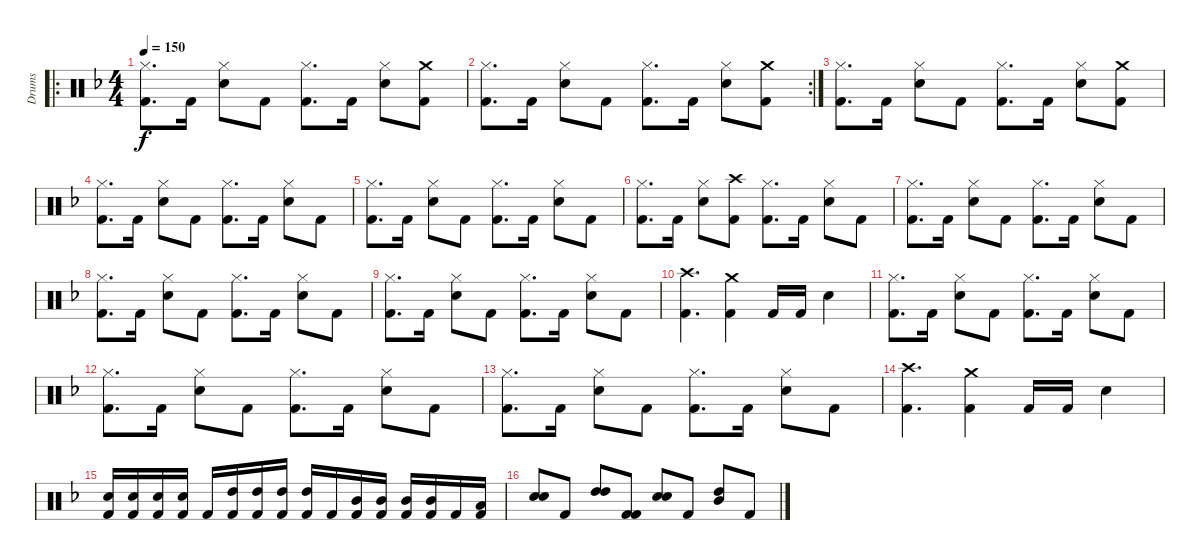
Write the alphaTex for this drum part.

\track ("Drums" "Drums") {instrument percussion}
\staff {score}
\articulation defaults
\ro
\ts (4 4)
\tempo 150
\clef neutral
\ks f
("Kick (hit) 2" "Hi-Hat (closed)").8{d dy f} "Kick (hit) 2".16 ("Snare (hit) 2" "Hi-Hat (closed)").8 "Kick (hit) 2".8 ("Kick (hit) 2" "Hi-Hat (closed)").8{d} "Kick (hit) 2".16 ("Snare (hit) 2" "Hi-Hat (closed)").8 ("Kick (hit) 2" "Crash medium (hit)").8 |
\rc 2
("Kick (hit) 2" "Hi-Hat (closed)").8{d} "Kick (hit) 2".16 ("Snare (hit) 2" "Hi-Hat (closed)").8 "Kick (hit) 2".8 ("Kick (hit) 2" "Hi-Hat (closed)").8{d} "Kick (hit) 2".16 ("Snare (hit) 2" "Hi-Hat (closed)").8 ("Kick (hit) 2" "Crash medium (hit)").8 |
("Kick (hit) 2" "Hi-Hat (closed)").8{d} "Kick (hit) 2".16 ("Snare (hit) 2" "Hi-Hat (closed)").8 "Kick (hit) 2".8 ("Kick (hit) 2" "Hi-Hat (closed)").8{d} "Kick (hit) 2".16 ("Snare (hit) 2" "Hi-Hat (closed)").8 ("Kick (hit) 2" "Crash medium (hit)").8 |
("Kick (hit) 2" "Hi-Hat (closed)").8{d} "Kick (hit) 2".16 ("Snare (hit) 2" "Hi-Hat (closed)").8 "Kick (hit) 2".8 ("Kick (hit) 2" "Hi-Hat (closed)").8{d} "Kick (hit) 2".16 ("Snare (hit) 2" "Hi-Hat (closed)").8 "Kick (hit) 2".8 |
("Kick (hit) 2" "Hi-Hat (closed)").8{d} "Kick (hit) 2".16 ("Snare (hit) 2" "Hi-Hat (closed)").8 "Kick (hit) 2".8 ("Kick (hit) 2" "Hi-Hat (closed)").8{d} "Kick (hit) 2".16 ("Snare (hit) 2" "Hi-Hat (closed)").8 "Kick (hit) 2".8 |
("Kick (hit) 2" "Hi-Hat (closed)").8{d} "Kick (hit) 2".16 ("Snare (hit) 2" "Hi-Hat (closed)").8 ("Kick (hit) 2" "Crash high (hit)").8 ("Kick (hit) 2" "Hi-Hat (closed)").8{d} "Kick (hit) 2".16 ("Snare (hit) 2" "Hi-Hat (closed)").8 "Kick (hit) 2".8 |
("Kick (hit) 2" "Hi-Hat (closed)").8{d} "Kick (hit) 2".16 ("Snare (hit) 2" "Hi-Hat (closed)").8 "Kick (hit) 2".8 ("Kick (hit) 2" "Hi-Hat (closed)").8{d} "Kick (hit) 2".16 ("Snare (hit) 2" "Hi-Hat (closed)").8 "Kick (hit) 2".8 |
("Kick (hit) 2" "Hi-Hat (closed)").8{d} "Kick (hit) 2".16 ("Snare (hit) 2" "Hi-Hat (closed)").8 "Kick (hit) 2".8 ("Kick (hit) 2" "Hi-Hat (closed)").8{d} "Kick (hit) 2".16 ("Snare (hit) 2" "Hi-Hat (closed)").8 "Kick (hit) 2".8 |
("Kick (hit) 2" "Hi-Hat (closed)").8{d} "Kick (hit) 2".16 ("Snare (hit) 2" "Hi-Hat (closed)").8 "Kick (hit) 2".8 ("Kick (hit) 2" "Hi-Hat (closed)").8{d} "Kick (hit) 2".16 ("Snare (hit) 2" "Hi-Hat (closed)").8 "Kick (hit) 2".8 |
("Kick (hit) 2" "Crash high (hit)").4{d} ("Kick (hit) 2" "Crash medium (hit)").4 "Kick (hit) 2".16 "Kick (hit) 2".16 "Snare (hit) 2".4 |
("Kick (hit) 2" "Hi-Hat (closed)").8{d} "Kick (hit) 2".16 ("Snare (hit) 2" "Hi-Hat (closed)").8 "Kick (hit) 2".8 ("Kick (hit) 2" "Hi-Hat (closed)").8{d} "Kick (hit) 2".16 ("Snare (hit) 2" "Hi-Hat (closed)").8 "Kick (hit) 2".8 |
("Kick (hit) 2" "Hi-Hat (closed)").8{d} "Kick (hit) 2".16 ("Snare (hit) 2" "Hi-Hat (closed)").8 "Kick (hit) 2".8 ("Kick (hit) 2" "Hi-Hat (closed)").8{d} "Kick (hit) 2".16 ("Snare (hit) 2" "Hi-Hat (closed)").8 "Kick (hit) 2".8 |
("Kick (hit) 2" "Hi-Hat (closed)").8{d} "Kick (hit) 2".16 ("Snare (hit) 2" "Hi-Hat (closed)").8 "Kick (hit) 2".8 ("Kick (hit) 2" "Hi-Hat (closed)").8{d} "Kick (hit) 2".16 ("Snare (hit) 2" "Hi-Hat (closed)").8 "Kick (hit) 2".8 |
("Kick (hit) 2" "Crash high (hit)").4{d} ("Kick (hit) 2" "Crash medium (hit)").4 "Kick (hit) 2".16 "Kick (hit) 2".16 "Snare (hit) 2".4 |
("Kick (hit) 2" "Snare (hit) 2").16 ("Kick (hit) 2" "Snare (hit) 2").16 ("Kick (hit) 2" "Snare (hit) 2").16 ("Kick (hit) 2" "Snare (hit) 2").16 "Kick (hit) 2".16 ("Kick (hit) 2" "High Tom (hit)").16 ("Kick (hit) 2" "High Tom (hit)").16 ("Kick (hit) 2" "High Tom (hit)").16 ("Kick (hit) 2" "High Tom (hit)").16 "Kick (hit) 2".16 ("Kick (hit) 2" "Mid Tom (hit)").16 ("Kick (hit) 2" "Mid Tom (hit)").16 ("Kick (hit) 2" "Mid Tom (hit)").16 ("Kick (hit) 2" "Mid Tom (hit)").16 "Kick (hit) 2".16 ("Kick (hit) 2" "Low Tom (hit)").16 |
("Electric Snare (hit)" "Electric Snare (hit)").8{bd 480} "Kick (hit) 2".8 ("High Tom (hit)" "High Tom (hit)").8{bd 480} ("Kick (hit) 2" "Kick (hit) 2").8 ("Snare (hit) 2" "Electric Snare (hit)").8{bd 120} "Kick (hit) 2".8 ("High Tom (hit)" "Mid Tom (hit)").8{bd 480} "Kick (hit) 2".8
